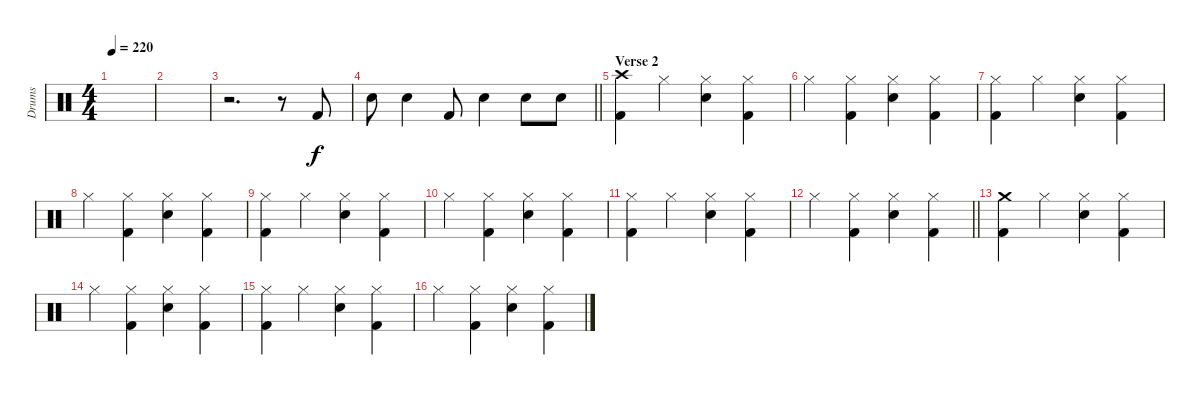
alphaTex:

\track ("Drums" "Drums") {instrument percussion}
\staff {score}
\articulation defaults
\ts (4 4)
\tempo 220
\clef neutral
\ks c
|
|
r.2{d} r.8 "Kick (hit) 2".8 |
\barLineRight lightlight "Electric Snare (hit)".8 "Electric Snare (hit)".4 "Kick (hit) 2".8 "Electric Snare (hit)".4 "Electric Snare (hit)".8 "Electric Snare (hit)".8
|
\section ("" "Verse 2")
("Crash high (hit)" "Kick (hit) 2").4 "Hi-Hat (closed)".4 ("Hi-Hat (closed)" "Electric Snare (hit)").4 ("Hi-Hat (closed)" "Kick (hit) 2").4 |
"Hi-Hat (closed)".4 ("Hi-Hat (closed)" "Kick (hit) 2").4 ("Hi-Hat (closed)" "Electric Snare (hit)").4 ("Hi-Hat (closed)" "Kick (hit) 2").4 |
("Hi-Hat (closed)" "Kick (hit) 2").4 "Hi-Hat (closed)".4 ("Hi-Hat (closed)" "Electric Snare (hit)").4 ("Hi-Hat (closed)" "Kick (hit) 2").4 |
"Hi-Hat (closed)".4 ("Hi-Hat (closed)" "Kick (hit) 2").4 ("Hi-Hat (closed)" "Electric Snare (hit)").4 ("Hi-Hat (closed)" "Kick (hit) 2").4 |
("Hi-Hat (closed)" "Kick (hit) 2").4 "Hi-Hat (closed)".4 ("Hi-Hat (closed)" "Electric Snare (hit)").4 ("Hi-Hat (closed)" "Kick (hit) 2").4 |
"Hi-Hat (closed)".4 ("Hi-Hat (closed)" "Kick (hit) 2").4 ("Hi-Hat (closed)" "Electric Snare (hit)").4 ("Hi-Hat (closed)" "Kick (hit) 2").4 |
("Hi-Hat (closed)" "Kick (hit) 2").4 "Hi-Hat (closed)".4 ("Hi-Hat (closed)" "Electric Snare (hit)").4 ("Hi-Hat (closed)" "Kick (hit) 2").4 |
\barLineRight lightlight "Hi-Hat (closed)".4
("Hi-Hat (closed)" "Kick (hit) 2").4 ("Hi-Hat (closed)" "Electric Snare (hit)").4 ("Hi-Hat (closed)" "Kick (hit) 2").4 |
("Crash medium (hit)" "Kick (hit) 2").4 "Hi-Hat (closed)".4 ("Hi-Hat (closed)" "Electric Snare (hit)").4 ("Hi-Hat (closed)" "Kick (hit) 2").4 |
"Hi-Hat (closed)".4 ("Hi-Hat (closed)" "Kick (hit) 2").4 ("Hi-Hat (closed)" "Electric Snare (hit)").4 ("Hi-Hat (closed)" "Kick (hit) 2").4 |
("Hi-Hat (closed)" "Kick (hit) 2").4 "Hi-Hat (closed)".4 ("Hi-Hat (closed)" "Electric Snare (hit)").4 ("Hi-Hat (closed)" "Kick (hit) 2").4 |
"Hi-Hat (closed)".4 ("Hi-Hat (closed)" "Kick (hit) 2").4 ("Hi-Hat (closed)" "Electric Snare (hit)").4 ("Hi-Hat (closed)" "Kick (hit) 2").4
